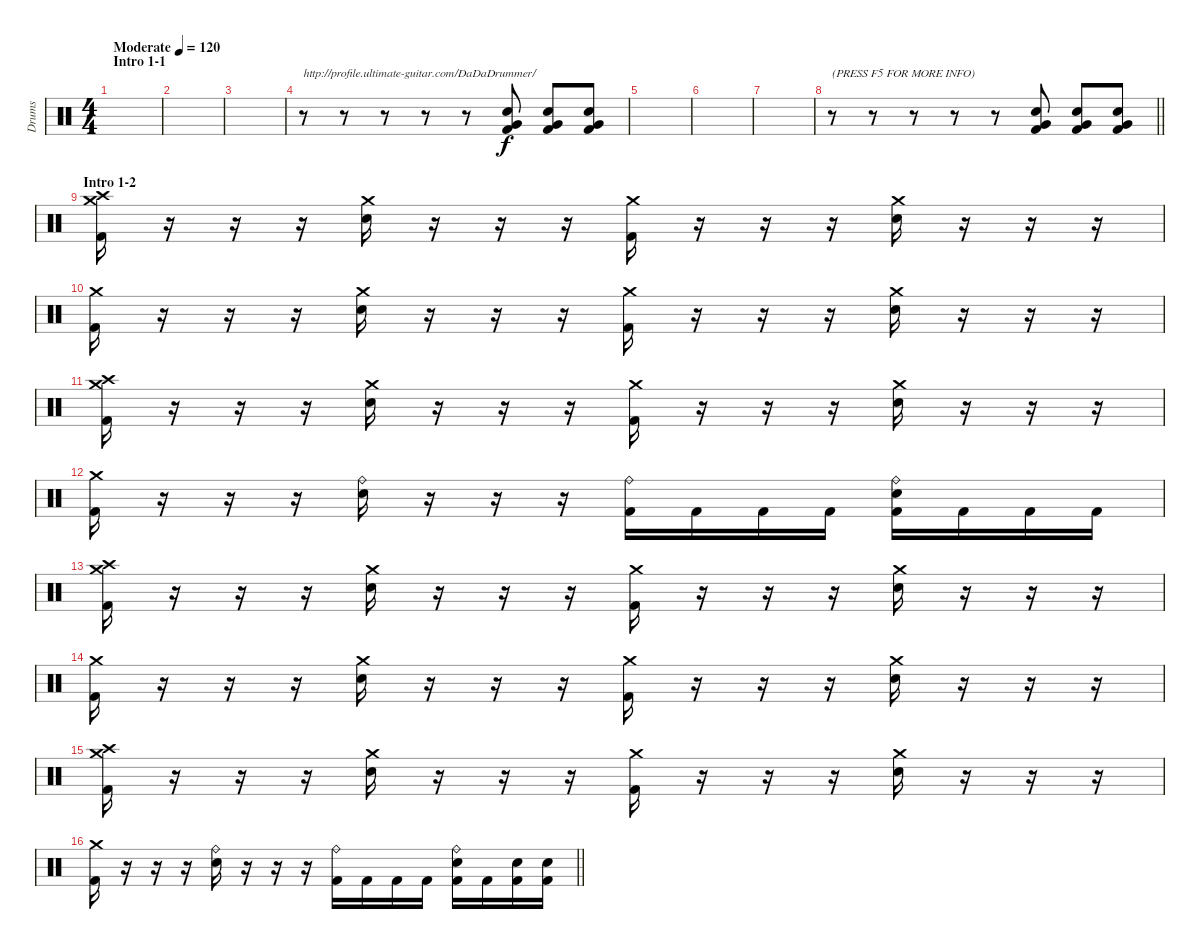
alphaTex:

\track ("Drums" "Drums") {instrument percussion}
\staff {score}
\articulation defaults
\ts (4 4)
\section ("" "Intro 1-1")
\tempo (120 "Moderate")
\clef neutral
\ks c
|
|
|
r.8{txt "http://profile.ultimate-guitar.com/DaDaDrummer/"} r.8 r.8 r.8 r.8 ("Electric Snare (hit)" "Very Low Tom (hit)" "Kick (hit) 2").8 ("Electric Snare (hit)" "Very Low Tom (hit)" "Kick (hit) 2").8 ("Electric Snare (hit)" "Very Low Tom (hit)" "Kick (hit) 2").8 |
|
|
|
\barLineRight lightlight
r.8{txt "(PRESS F5 FOR MORE INFO)"} r.8 r.8 r.8 r.8 ("Electric Snare (hit)" "Very Low Tom (hit)" "Kick (hit) 2").8 ("Electric Snare (hit)" "Very Low Tom (hit)" "Kick (hit) 2").8 ("Electric Snare (hit)" "Very Low Tom (hit)" "Kick (hit) 2").8 |
\section ("" "Intro 1-2")
("Crash medium (hit)" "Crash high (hit)" "Kick (hit) 2").16 r.16 r.16 r.16 ("Crash medium (hit)" "Electric Snare (hit)").16 r.16 r.16 r.16 ("Crash medium (hit)" "Kick (hit) 2").16 r.16 r.16 r.16 ("Crash medium (hit)" "Electric Snare (hit)").16 r.16 r.16 r.16 |
("Crash medium (hit)" "Kick (hit) 2").16 r.16 r.16 r.16 ("Crash medium (hit)" "Electric Snare (hit)").16 r.16 r.16 r.16 ("Crash medium (hit)" "Kick (hit) 2").16 r.16 r.16 r.16 ("Crash medium (hit)" "Electric Snare (hit)").16 r.16 r.16 r.16 |
("Crash medium (hit)" "Crash high (hit)" "Kick (hit) 2").16 r.16 r.16 r.16 ("Crash medium (hit)" "Electric Snare (hit)").16 r.16 r.16 r.16 ("Crash medium (hit)" "Kick (hit) 2").16 r.16 r.16 r.16 ("Crash medium (hit)" "Electric Snare (hit)").16 r.16 r.16 r.16 |
("Crash medium (hit)" "Kick (hit) 2").16 r.16 r.16 r.16 ("Ride (bell)" "Electric Snare (hit)").16 r.16 r.16 r.16 ("Ride (bell)" "Kick (hit) 2").16 "Kick (hit) 2".16 "Kick (hit) 2".16 "Kick (hit) 2".16 ("Ride (bell)" "Electric Snare (hit)" "Kick (hit) 2").16 "Kick (hit) 2".16 "Kick (hit) 2".16 "Kick (hit) 2".16 |
("Crash medium (hit)" "Crash high (hit)" "Kick (hit) 2").16 r.16 r.16 r.16 ("Crash medium (hit)" "Electric Snare (hit)").16 r.16 r.16 r.16 ("Crash medium (hit)" "Kick (hit) 2").16 r.16 r.16 r.16 ("Crash medium (hit)" "Electric Snare (hit)").16 r.16 r.16 r.16 |
("Crash medium (hit)" "Kick (hit) 2").16 r.16 r.16 r.16 ("Crash medium (hit)" "Electric Snare (hit)").16 r.16 r.16 r.16 ("Crash medium (hit)" "Kick (hit) 2").16 r.16 r.16 r.16 ("Crash medium (hit)" "Electric Snare (hit)").16 r.16 r.16 r.16 |
("Crash medium (hit)" "Crash high (hit)" "Kick (hit) 2").16 r.16 r.16 r.16 ("Crash medium (hit)" "Electric Snare (hit)").16 r.16 r.16 r.16 ("Crash medium (hit)" "Kick (hit) 2").16 r.16 r.16 r.16 ("Crash medium (hit)" "Electric Snare (hit)").16 r.16 r.16 r.16 |
\barLineRight lightlight
("Crash medium (hit)" "Kick (hit) 2").16 r.16 r.16 r.16 ("Ride (bell)" "Electric Snare (hit)").16 r.16 r.16 r.16 ("Ride (bell)" "Kick (hit) 2").16 "Kick (hit) 2".16 "Kick (hit) 2".16 "Kick (hit) 2".16 ("Ride (bell)" "Electric Snare (hit)" "Kick (hit) 2").16 "Kick (hit) 2".16 ("Electric Snare (hit)" "Kick (hit) 2").16 ("Electric Snare (hit)" "Kick (hit) 2").16
